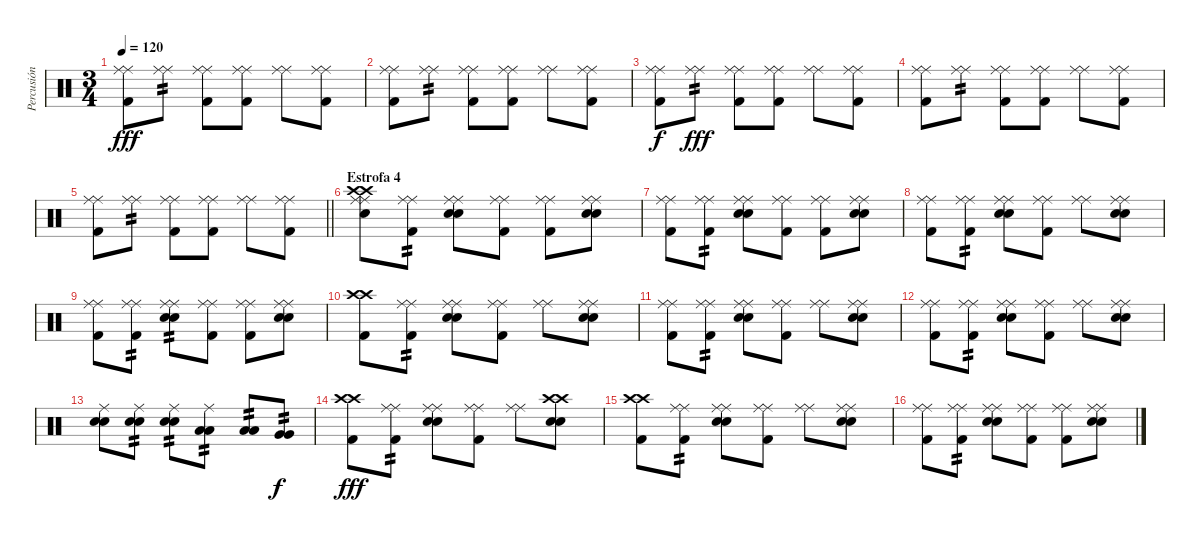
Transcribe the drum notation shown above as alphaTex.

\track ("Percusión" "Percusión") {instrument percussion}
\staff {score}
\articulation defaults
\ts (3 4)
\tempo 120
\clef neutral
\ks c
("Ride (middle)" "Ride (middle)" "Kick (hit) 2").8{dy fff} ("Ride (middle)" "Ride (middle)").8{tp 2} ("Ride (middle)" "Ride (middle)" "Kick (hit) 2").8 ("Ride (middle)" "Ride (middle)" "Kick (hit) 2").8 ("Ride (middle)" "Ride (middle)").8 ("Ride (middle)" "Ride (middle)" "Kick (hit) 2").8 |
("Ride (middle)" "Ride (middle)" "Kick (hit) 2").8 ("Ride (middle)" "Ride (middle)").8{tp 2} ("Ride (middle)" "Ride (middle)" "Kick (hit) 2").8 ("Ride (middle)" "Ride (middle)" "Kick (hit) 2").8 ("Ride (middle)" "Ride (middle)").8 ("Ride (middle)" "Ride (middle)" "Kick (hit) 2").8 |
("Ride (middle)" "Ride (middle)" "Kick (hit) 2").8{dy f} ("Ride (middle)" "Ride (middle)").8{tp 2 dy fff} ("Ride (middle)" "Ride (middle)" "Kick (hit) 2").8 ("Ride (middle)" "Ride (middle)" "Kick (hit) 2").8 ("Ride (middle)" "Ride (middle)").8 ("Ride (middle)" "Ride (middle)" "Kick (hit) 2").8 |
("Ride (middle)" "Ride (middle)" "Kick (hit) 2").8 ("Ride (middle)" "Ride (middle)").8{tp 2} ("Ride (middle)" "Ride (middle)" "Kick (hit) 2").8 ("Ride (middle)" "Ride (middle)" "Kick (hit) 2").8 ("Ride (middle)" "Ride (middle)").8 ("Ride (middle)" "Ride (middle)" "Kick (hit) 2").8 |
\barLineRight lightlight
("Ride (middle)" "Ride (middle)" "Kick (hit) 2").8 ("Ride (middle)" "Ride (middle)").8{tp 2} ("Ride (middle)" "Ride (middle)" "Kick (hit) 2").8 ("Ride (middle)" "Ride (middle)" "Kick (hit) 2").8 ("Ride (middle)" "Ride (middle)").8 ("Ride (middle)" "Ride (middle)" "Kick (hit) 2").8 |
\section ("" "Estrofa 4")
("Ride (middle)" "Ride (middle)" "Crash high (hit)" "Crash high (hit)" "Electric Snare (hit)").8 ("Ride (middle)" "Ride (middle)" "Kick (hit) 2").8{tp 2} ("Ride (middle)" "Ride (middle)" "Electric Snare (hit)" "Electric Snare (hit)").8 ("Ride (middle)" "Ride (middle)" "Kick (hit) 2").8 ("Ride (middle)" "Ride (middle)" "Kick (hit) 2").8 ("Ride (middle)" "Ride (middle)" "Electric Snare (hit)" "Electric Snare (hit)").8 |
("Ride (middle)" "Ride (middle)" "Kick (hit) 2").8 ("Ride (middle)" "Ride (middle)" "Kick (hit) 2").8{tp 2} ("Ride (middle)" "Ride (middle)" "Electric Snare (hit)" "Electric Snare (hit)").8 ("Ride (middle)" "Ride (middle)" "Kick (hit) 2").8 ("Ride (middle)" "Ride (middle)" "Kick (hit) 2").8 ("Ride (middle)" "Ride (middle)" "Electric Snare (hit)" "Electric Snare (hit)").8 |
("Ride (middle)" "Ride (middle)" "Kick (hit) 2").8 ("Ride (middle)" "Ride (middle)" "Kick (hit) 2").8{tp 2} ("Ride (middle)" "Ride (middle)" "Electric Snare (hit)" "Electric Snare (hit)").8 ("Ride (middle)" "Ride (middle)" "Kick (hit) 2").8 ("Ride (middle)" "Ride (middle)").8 ("Ride (middle)" "Ride (middle)" "Electric Snare (hit)" "Electric Snare (hit)").8 |
("Ride (middle)" "Ride (middle)" "Kick (hit) 2").8 ("Ride (middle)" "Ride (middle)" "Kick (hit) 2").8{tp 2} ("Ride (middle)" "Ride (middle)" "Electric Snare (hit)" "Electric Snare (hit)").8{tp 2} ("Ride (middle)" "Ride (middle)" "Kick (hit) 2").8 ("Ride (middle)" "Ride (middle)" "Kick (hit) 2").8 ("Ride (middle)" "Ride (middle)" "Electric Snare (hit)" "Electric Snare (hit)").8 |
("Crash high (hit)" "Crash high (hit)" "Kick (hit) 2").8 ("Ride (middle)" "Ride (middle)" "Kick (hit) 2").8{tp 2} ("Ride (middle)" "Ride (middle)" "Electric Snare (hit)" "Electric Snare (hit)").8 ("Ride (middle)" "Ride (middle)" "Kick (hit) 2").8 ("Ride (middle)" "Ride (middle)").8 ("Ride (middle)" "Ride (middle)" "Electric Snare (hit)" "Electric Snare (hit)").8 |
("Ride (middle)" "Ride (middle)" "Kick (hit) 2").8 ("Ride (middle)" "Ride (middle)" "Kick (hit) 2").8{tp 2} ("Ride (middle)" "Ride (middle)" "Electric Snare (hit)" "Electric Snare (hit)").8 ("Ride (middle)" "Ride (middle)" "Kick (hit) 2").8 ("Ride (middle)" "Ride (middle)").8 ("Ride (middle)" "Ride (middle)" "Electric Snare (hit)" "Electric Snare (hit)").8 |
("Ride (middle)" "Ride (middle)" "Kick (hit) 2").8 ("Ride (middle)" "Ride (middle)" "Kick (hit) 2").8{tp 2} ("Ride (middle)" "Ride (middle)" "Electric Snare (hit)" "Electric Snare (hit)").8 ("Ride (middle)" "Ride (middle)" "Kick (hit) 2").8 ("Ride (middle)" "Ride (middle)").8 ("Ride (middle)" "Ride (middle)" "Electric Snare (hit)" "Electric Snare (hit)").8 |
("Ride (middle)" "Electric Snare (hit)" "Electric Snare (hit)").8 ("Ride (middle)" "Electric Snare (hit)" "Electric Snare (hit)").8{tp 2} ("Ride (middle)" "Electric Snare (hit)" "Electric Snare (hit)").8{tp 2} ("Ride (middle)" "Low Tom (hit)" "Low Tom (hit)").8{tp 2} ("Low Tom (hit)" "Low Tom (hit)").8{tp 2} ("Very Low Tom (hit)" "Very Low Tom (hit)").8{tp 2 dy f} |
("Crash high (hit)" "Crash high (hit)" "Kick (hit) 2").8{dy fff} ("Ride (middle)" "Ride (middle)" "Kick (hit) 2").8{tp 2} ("Ride (middle)" "Ride (middle)" "Electric Snare (hit)" "Electric Snare (hit)").8 ("Ride (middle)" "Ride (middle)" "Kick (hit) 2").8 ("Ride (middle)" "Ride (middle)").8 ("Crash high (hit)" "Crash high (hit)" "Electric Snare (hit)" "Electric Snare (hit)").8 |
("Crash high (hit)" "Crash high (hit)" "Kick (hit) 2").8 ("Ride (middle)" "Ride (middle)" "Kick (hit) 2").8{tp 2} ("Ride (middle)" "Ride (middle)" "Electric Snare (hit)" "Electric Snare (hit)").8 ("Ride (middle)" "Ride (middle)" "Kick (hit) 2").8 ("Ride (middle)" "Ride (middle)").8 ("Ride (middle)" "Ride (middle)" "Electric Snare (hit)" "Electric Snare (hit)").8 |
("Ride (middle)" "Ride (middle)" "Kick (hit) 2").8 ("Ride (middle)" "Ride (middle)" "Kick (hit) 2").8{tp 2} ("Ride (middle)" "Ride (middle)" "Electric Snare (hit)" "Electric Snare (hit)").8 ("Ride (middle)" "Ride (middle)" "Kick (hit) 2").8 ("Ride (middle)" "Ride (middle)" "Kick (hit) 2").8 ("Ride (middle)" "Ride (middle)" "Electric Snare (hit)" "Electric Snare (hit)").8
